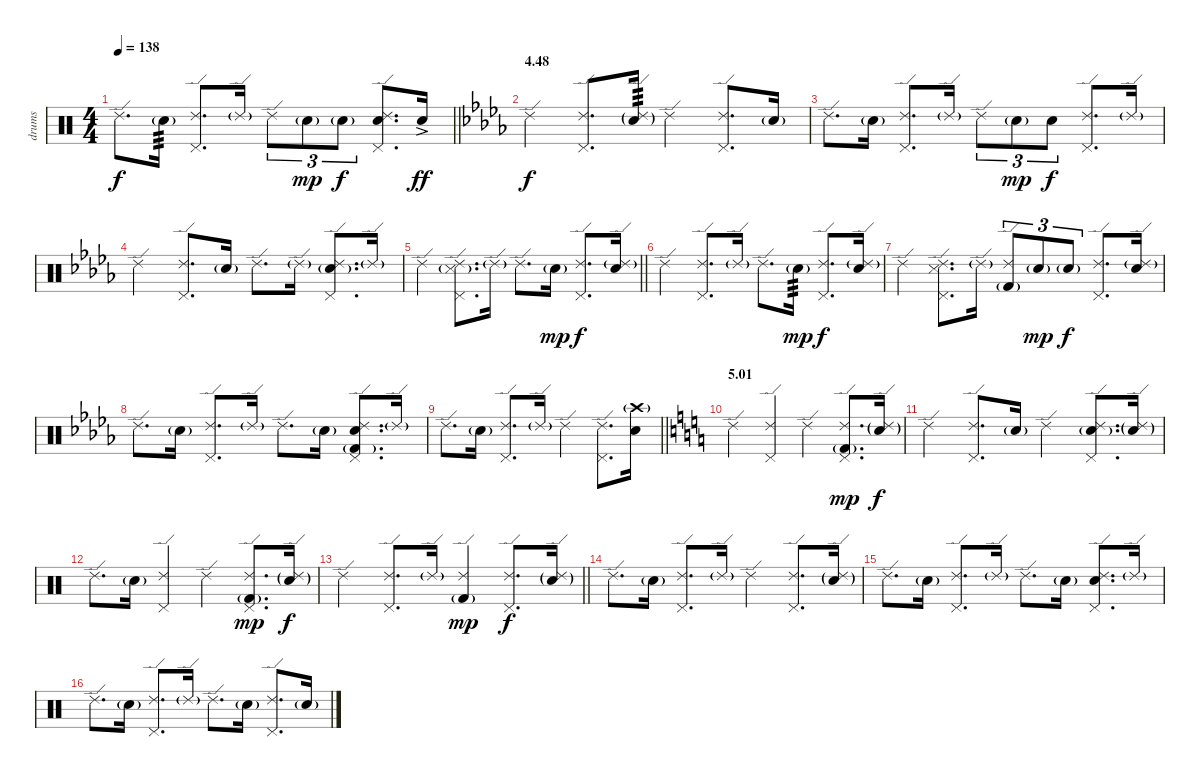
\track ("drums" "drums") {instrument percussion}
\staff {score}
\articulation defaults
\ts (4 4)
\tempo 138
\clef neutral
\barLineRight lightlight
\ks c "Ride (edge) 2".8{d dy f} "Electric Snare (hit)"{g}.16{tp 3}
("Ride (edge) 2" "Pedal Hi-Hat (hit)").8{d} "Ride (edge) 2"{g}.16 "Ride (edge) 2".8{tu (3 2)} "Electric Snare (hit)"{g}.8{tu (3 2) dy mp} "Electric Snare (hit)"{g}.8{tu (3 2) dy f} ("Ride (edge) 2" "Pedal Hi-Hat (hit)" "Electric Snare (hit)").8{d} "Electric Snare (hit)"{ac}.16{dy ff} |
\section ("" "4.48")
\ks db "Ride (edge) 2".4{dy f}
("Ride (edge) 2" "Pedal Hi-Hat (hit)").8{d} ("Ride (edge) 2"{g} "Electric Snare (hit)"{g}).16{tp 3} "Ride (edge) 2".4 ("Ride (edge) 2" "Pedal Hi-Hat (hit)").8{d} "Electric Snare (hit)"{g}.16 |
"Ride (edge) 2".8{d} "Electric Snare (hit)"{g}.16 ("Ride (edge) 2" "Pedal Hi-Hat (hit)").8{d} "Ride (edge) 2"{g}.16 "Ride (edge) 2".8{tu (3 2)} "Electric Snare (hit)"{g}.8{tu (3 2) dy mp} "Electric Snare (hit)".8{tu (3 2) dy f} ("Ride (edge) 2" "Pedal Hi-Hat (hit)").8{d} "Ride (edge) 2"{g}.16 |
"Ride (edge) 2".4 ("Ride (edge) 2" "Pedal Hi-Hat (hit)").8{d} "Electric Snare (hit)"{g}.16 "Ride (edge) 2".8{d} "Ride (edge) 2"{g}.16 ("Ride (edge) 2" "Pedal Hi-Hat (hit)" "Electric Snare (hit)"{g}).8{d} "Ride (edge) 2"{g}.16 |
\barLineRight lightlight "Ride (edge) 2".4
("Ride (edge) 2" "Pedal Hi-Hat (hit)" "Snare (side stick) 3"{g}).8{d} "Ride (edge) 2"{g}.16 "Ride (edge) 2".8{d} "Electric Snare (hit)"{g}.16{dy mp} ("Ride (edge) 2" "Pedal Hi-Hat (hit)").8{d dy f} ("Ride (edge) 2"{g} "Electric Snare (hit)").16 |
"Ride (edge) 2".4 ("Ride (edge) 2" "Pedal Hi-Hat (hit)").8{d} "Ride (edge) 2"{g}.16 "Ride (edge) 2".8{d} "Electric Snare (hit)"{g}.16{tp 3 dy mp} ("Ride (edge) 2" "Pedal Hi-Hat (hit)").8{d dy f} ("Ride (edge) 2"{g} "Electric Snare (hit)").16 |
"Ride (edge) 2".4 ("Ride (edge) 2" "Pedal Hi-Hat (hit)" "Snare (side stick) 3").8{d} "Ride (edge) 2"{g}.16 ("Ride (edge) 2" "Kick (hit) 2"{g}).8{tu (3 2)} "Electric Snare (hit)"{g}.8{tu (3 2) dy mp} "Electric Snare (hit)"{g}.8{tu (3 2) dy f} ("Ride (edge) 2" "Pedal Hi-Hat (hit)").8{d} ("Ride (edge) 2"{g} "Electric Snare (hit)").16 |
"Ride (edge) 2".8{d} "Electric Snare (hit)"{g}.16 ("Ride (edge) 2" "Pedal Hi-Hat (hit)").8{d} "Ride (edge) 2"{g}.16 "Ride (edge) 2".8{d} "Electric Snare (hit)"{g}.16 ("Ride (edge) 2" "Pedal Hi-Hat (hit)" "Electric Snare (hit)" "Kick (hit) 2"{g}).8{d} "Ride (edge) 2"{g}.16 |
\barLineRight lightlight "Ride (edge) 2".8{d} "Electric Snare (hit)"{g}.16
("Ride (edge) 2" "Pedal Hi-Hat (hit)").8{d} "Ride (edge) 2"{g}.16 "Ride (edge) 2".4 ("Ride (edge) 2" "Pedal Hi-Hat (hit)").8{d} ("Crash high (hit)"{g} "Electric Snare (hit)").16 |
\section ("" "5.01")
\ks c "Ride (edge) 2".4
("Ride (edge) 2" "Pedal Hi-Hat (hit)").4 "Ride (edge) 2".4 ("Ride (edge) 2" "Pedal Hi-Hat (hit)" "Kick (hit) 2"{g}).8{d dy mp} ("Ride (edge) 2"{g} "Electric Snare (hit)"{g}).16{dy f} |
"Ride (edge) 2".4 ("Ride (edge) 2" "Pedal Hi-Hat (hit)").8{d} "Electric Snare (hit)"{g}.16 "Ride (edge) 2".4 ("Ride (edge) 2" "Pedal Hi-Hat (hit)" "Electric Snare (hit)"{g}).8{d} ("Ride (edge) 2"{g} "Electric Snare (hit)"{g}).16 |
"Ride (edge) 2".8{d} "Electric Snare (hit)"{g}.16 ("Ride (edge) 2" "Pedal Hi-Hat (hit)").4 "Ride (edge) 2".4 ("Ride (edge) 2" "Pedal Hi-Hat (hit)" "Kick (hit) 2"{g}).8{d dy mp} ("Ride (edge) 2"{g} "Electric Snare (hit)"{g}).16{dy f} |
\barLineRight lightlight "Ride (edge) 2".4
("Ride (edge) 2" "Pedal Hi-Hat (hit)").8{d} "Ride (edge) 2"{g}.16 ("Ride (edge) 2" "Kick (hit) 2"{g}).4{dy mp} ("Ride (edge) 2" "Pedal Hi-Hat (hit)").8{d dy f} ("Ride (edge) 2"{g} "Electric Snare (hit)"{g}).16 |
"Ride (edge) 2".8{d} "Electric Snare (hit)"{g}.16 ("Ride (edge) 2" "Pedal Hi-Hat (hit)").8{d} "Ride (edge) 2"{g}.16 "Ride (edge) 2".4 ("Ride (edge) 2" "Pedal Hi-Hat (hit)").8{d} ("Ride (edge) 2"{g} "Electric Snare (hit)"{g}).16 |
"Ride (edge) 2".8{d} "Electric Snare (hit)"{g}.16 ("Ride (edge) 2" "Pedal Hi-Hat (hit)").8{d} "Ride (edge) 2"{g}.16 "Ride (edge) 2".8{d} "Electric Snare (hit)"{g}.16 ("Ride (edge) 2" "Pedal Hi-Hat (hit)" "Electric Snare (hit)").8{d} "Ride (edge) 2"{g}.16 |
"Ride (edge) 2".8{d} "Electric Snare (hit)"{g}.16 ("Ride (edge) 2" "Pedal Hi-Hat (hit)").8{d} "Ride (edge) 2"{g}.16 "Ride (edge) 2".8{d} "Electric Snare (hit)"{g}.16 ("Ride (edge) 2" "Pedal Hi-Hat (hit)").8{d} "Electric Snare (hit)"{g}.16
